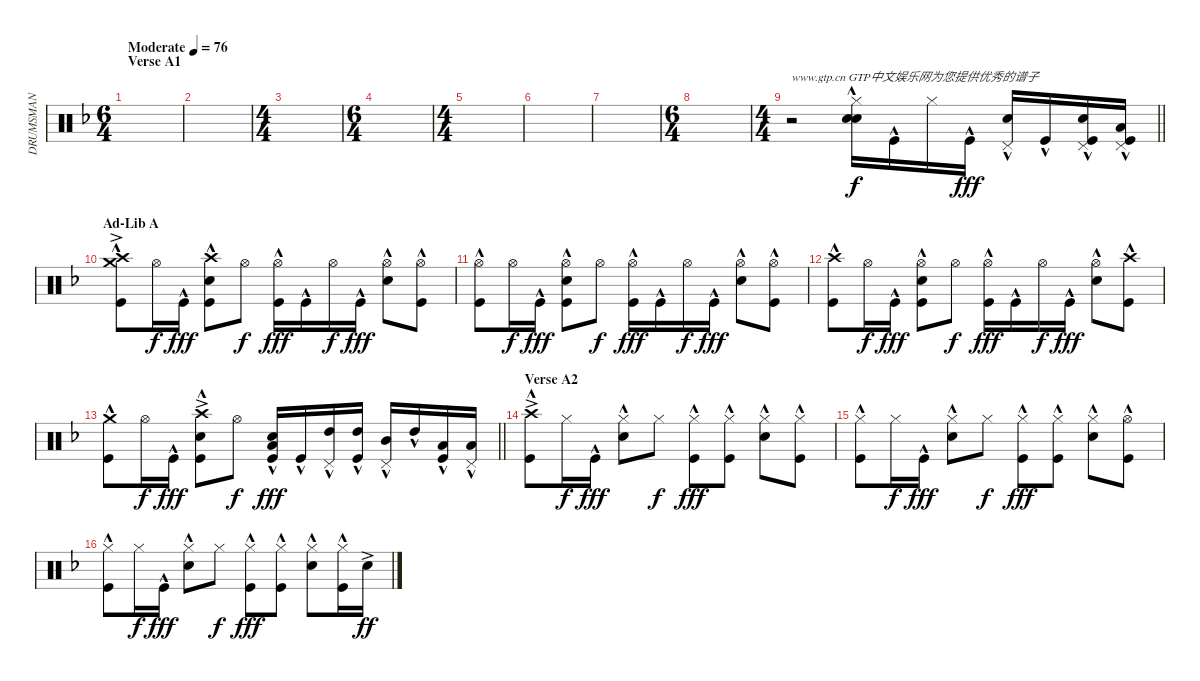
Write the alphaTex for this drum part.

\track ("DRUMSMAN" "DRUMSMAN") {instrument percussion}
\staff {score}
\articulation defaults
\ts (6 4)
\section ("" "Verse A1")
\tempo (76 "Moderate")
\clef neutral
\ks f
|
|
\ts (4 4)
|
\ts (6 4)
|
\ts (4 4)
|
|
|
\ts (6 4)
|
\ts (4 4)
\barLineRight lightlight
r.2{txt "www.gtp.cn GTP中文娱乐网为您提供优秀的谱子"} ("Hi-Hat (closed)" "Snare (hit) 2"{hac} "Snare (hit) 2").16 "Kick (hit)"{hac}.16 "Hi-Hat (closed)".16{dy f} "Kick (hit)"{hac}.16{dy fff} ("Snare (hit) 2"{hac} "Pedal Hi-Hat (hit)").16 "Kick (hit)"{hac}.16 ("Snare (hit) 2"{hac} "Pedal Hi-Hat (hit)" "Kick (hit)"{hac}).16 ("Low Tom (hit)"{hac} "Pedal Hi-Hat (hit)" "Kick (hit)"{hac}).16 |
\section ("" "Ad-Lib A")
("Crash high (hit)"{hac} "Crash medium (hit)"{ac} "Kick (hit)"{hac}).8 "Hi-Hat (open)".16{dy f} "Kick (hit)"{hac}.16{dy fff} ("Crash high (hit)" "Snare (hit) 2"{hac} "Kick (hit)"{hac}).8 "Hi-Hat (open)".8{dy f} ("Hi-Hat (open)" "Kick (hit)"{hac}).16{dy fff} "Kick (hit)"{hac}.16 "Hi-Hat (open)".16{dy f} "Kick (hit)"{hac}.16{dy fff} ("Hi-Hat (open)" "Snare (hit) 2"{hac}).8 ("Hi-Hat (open)" "Kick (hit)"{hac}).8 |
("Hi-Hat (open)" "Kick (hit)"{hac}).8 "Hi-Hat (open)".16{dy f} "Kick (hit)"{hac}.16{dy fff} ("Hi-Hat (open)" "Snare (hit) 2"{hac} "Kick (hit)"{hac}).8 "Hi-Hat (open)".8{dy f} ("Hi-Hat (open)" "Kick (hit)"{hac}).16{dy fff} "Kick (hit)"{hac}.16 "Hi-Hat (open)".16{dy f} "Kick (hit)"{hac}.16{dy fff} ("Hi-Hat (open)" "Snare (hit) 2"{hac}).8 ("Hi-Hat (open)" "Kick (hit)"{hac}).8 |
("Crash high (hit)"{hac} "Kick (hit)"{hac}).8 "Hi-Hat (open)".16{dy f} "Kick (hit)"{hac}.16{dy fff} ("Hi-Hat (open)" "Snare (hit) 2"{hac} "Kick (hit)"{hac}).8 "Hi-Hat (open)".8{dy f} ("Hi-Hat (open)" "Kick (hit)"{hac}).16{dy fff} "Kick (hit)"{hac}.16 "Hi-Hat (open)".16{dy f} "Kick (hit)"{hac}.16{dy fff} ("Hi-Hat (open)" "Snare (hit) 2"{hac}).8 ("Crash high (hit)"{hac} "Kick (hit)"{hac}).8 |
\barLineRight lightlight
("Crash medium (hit)"{hac} "Kick (hit)"{hac}).8 "Hi-Hat (open)".16{dy f} "Kick (hit)"{hac}.16{dy fff} ("Crash high (hit)"{ac} "Snare (hit) 2"{hac} "Kick (hit)"{hac}).8 "Hi-Hat (open)".8{dy f} ("Snare (hit) 2"{hac} "Low Tom (hit)" "Kick (hit)"{hac}).16{dy fff} "Kick (hit)"{hac}.16 ("High Tom (hit)"{hac} "Pedal Hi-Hat (hit)").16 ("High Tom (hit)"{hac} "Kick (hit)"{hac}).16 ("Mid Tom (hit)"{hac} "Pedal Hi-Hat (hit)").16 "High Tom (hit)"{hac}.16 ("Low Tom (hit)"{hac} "Kick (hit)"{hac}).16 ("Low Tom (hit)"{hac} "Pedal Hi-Hat (hit)").16 |
\section ("" "Verse A2")
("Crash high (hit)"{ac} "Kick (hit)"{hac}).8 "Hi-Hat (closed)".16{dy f} "Kick (hit)"{hac}.16{dy fff} ("Hi-Hat (closed)" "Snare (hit) 2"{hac}).8 "Hi-Hat (closed)".8{dy f} ("Hi-Hat (closed)" "Kick (hit)"{hac}).8{dy fff} ("Hi-Hat (closed)" "Kick (hit)"{hac}).8 ("Hi-Hat (closed)" "Snare (hit) 2"{hac}).8 ("Hi-Hat (closed)" "Kick (hit)"{hac}).8 |
("Hi-Hat (closed)" "Kick (hit)"{hac}).8 "Hi-Hat (closed)".16{dy f} "Kick (hit)"{hac}.16{dy fff} ("Hi-Hat (closed)" "Snare (hit) 2"{hac}).8 "Hi-Hat (closed)".8{dy f} ("Hi-Hat (closed)" "Kick (hit)"{hac}).8{dy fff} ("Hi-Hat (closed)" "Kick (hit)"{hac}).8 ("Hi-Hat (closed)" "Snare (hit) 2"{hac}).8 ("Hi-Hat (open)" "Kick (hit)"{hac}).8 |
("Hi-Hat (closed)" "Kick (hit)"{hac}).8 "Hi-Hat (closed)".16{dy f} "Kick (hit)"{hac}.16{dy fff} ("Hi-Hat (closed)" "Snare (hit) 2"{hac}).8 "Hi-Hat (closed)".8{dy f} ("Hi-Hat (closed)" "Kick (hit)"{hac}).8{dy fff} ("Hi-Hat (closed)" "Kick (hit)"{hac}).8 ("Hi-Hat (closed)" "Snare (hit) 2"{hac}).8 ("Hi-Hat (closed)" "Kick (hit)"{hac}).16 "Snare (hit) 2"{ac}.16{dy ff}
